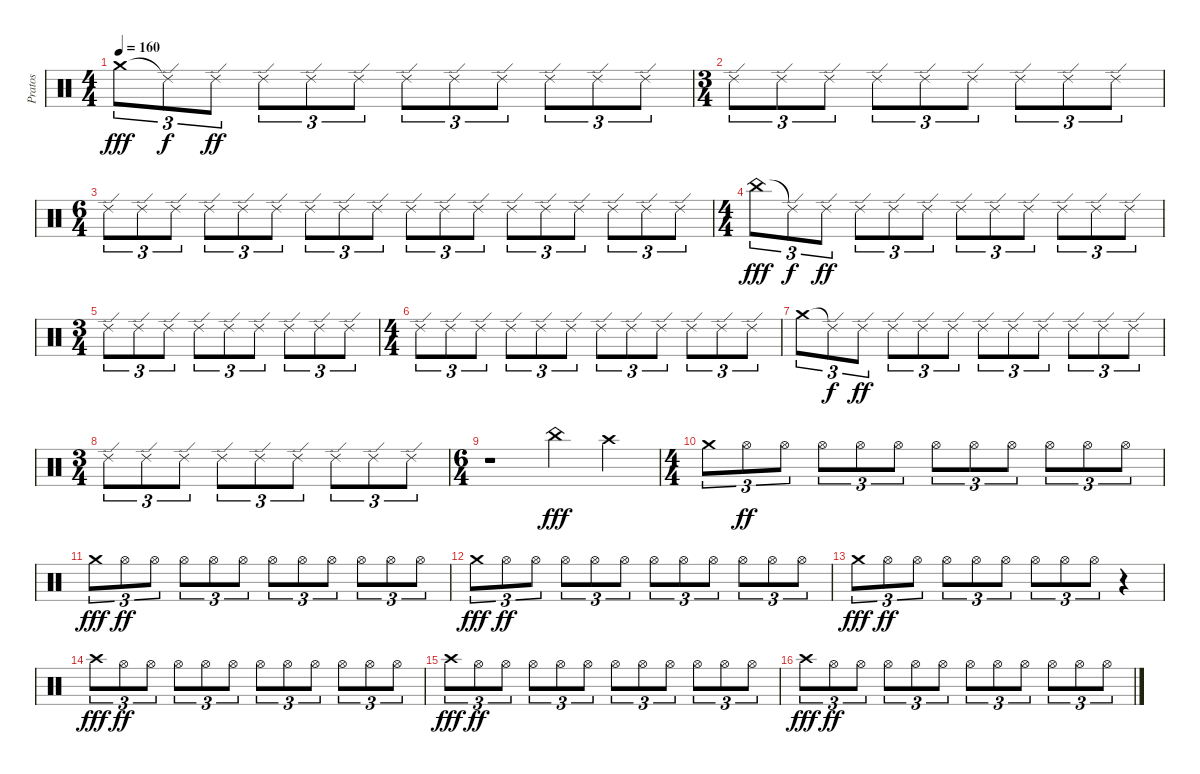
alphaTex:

\track ("Pratos" "Pratos") {instrument percussion}
\staff {score}
\articulation defaults
\ts (4 4)
\tempo 160
\clef neutral
\ks c "Crash medium (hit)".8{tu (3 2) dy fff} "Ride (edge) 2"{t}.8{tu (3 2) dy f} "Ride (edge) 2".8{tu (3 2) dy ff} "Ride (edge) 2".8{tu (3 2)} "Ride (edge) 2".8{tu (3 2)} "Ride (edge) 2".8{tu (3 2)} "Ride (edge) 2".8{tu (3 2)} "Ride (edge) 2".8{tu (3 2)} "Ride (edge) 2".8{tu (3 2)} "Ride (edge) 2".8{tu (3 2)} "Ride (edge) 2".8{tu (3 2)} "Ride (edge) 2".8{tu (3 2)}
|
\ts (3 4)
"Ride (edge) 2".8{tu (3 2)} "Ride (edge) 2".8{tu (3 2)} "Ride (edge) 2".8{tu (3 2)} "Ride (edge) 2".8{tu (3 2)} "Ride (edge) 2".8{tu (3 2)} "Ride (edge) 2".8{tu (3 2)} "Ride (edge) 2".8{tu (3 2)} "Ride (edge) 2".8{tu (3 2)} "Ride (edge) 2".8{tu (3 2)} |
\ts (6 4)
"Ride (edge) 2".8{tu (3 2)} "Ride (edge) 2".8{tu (3 2)} "Ride (edge) 2".8{tu (3 2)} "Ride (edge) 2".8{tu (3 2)} "Ride (edge) 2".8{tu (3 2)} "Ride (edge) 2".8{tu (3 2)} "Ride (edge) 2".8{tu (3 2)} "Ride (edge) 2".8{tu (3 2)} "Ride (edge) 2".8{tu (3 2)} "Ride (edge) 2".8{tu (3 2)} "Ride (edge) 2".8{tu (3 2)} "Ride (edge) 2".8{tu (3 2)} "Ride (edge) 2".8{tu (3 2)} "Ride (edge) 2".8{tu (3 2)} "Ride (edge) 2".8{tu (3 2)} "Ride (edge) 2".8{tu (3 2)} "Ride (edge) 2".8{tu (3 2)} "Ride (edge) 2".8{tu (3 2)} |
\ts (4 4)
"China (hit)".8{tu (3 2) dy fff} "Ride (edge) 2"{t}.8{tu (3 2) dy f} "Ride (edge) 2".8{tu (3 2) dy ff} "Ride (edge) 2".8{tu (3 2)} "Ride (edge) 2".8{tu (3 2)} "Ride (edge) 2".8{tu (3 2)} "Ride (edge) 2".8{tu (3 2)} "Ride (edge) 2".8{tu (3 2)} "Ride (edge) 2".8{tu (3 2)} "Ride (edge) 2".8{tu (3 2)} "Ride (edge) 2".8{tu (3 2)} "Ride (edge) 2".8{tu (3 2)} |
\ts (3 4)
"Ride (edge) 2".8{tu (3 2)} "Ride (edge) 2".8{tu (3 2)} "Ride (edge) 2".8{tu (3 2)} "Ride (edge) 2".8{tu (3 2)} "Ride (edge) 2".8{tu (3 2)} "Ride (edge) 2".8{tu (3 2)} "Ride (edge) 2".8{tu (3 2)} "Ride (edge) 2".8{tu (3 2)} "Ride (edge) 2".8{tu (3 2)} |
\ts (4 4)
"Ride (edge) 2".8{tu (3 2)} "Ride (edge) 2".8{tu (3 2)} "Ride (edge) 2".8{tu (3 2)} "Ride (edge) 2".8{tu (3 2)} "Ride (edge) 2".8{tu (3 2)} "Ride (edge) 2".8{tu (3 2)} "Ride (edge) 2".8{tu (3 2)} "Ride (edge) 2".8{tu (3 2)} "Ride (edge) 2".8{tu (3 2)} "Ride (edge) 2".8{tu (3 2)} "Ride (edge) 2".8{tu (3 2)} "Ride (edge) 2".8{tu (3 2)} |
"Crash medium (hit)".8{tu (3 2)} "Ride (edge) 2"{t}.8{tu (3 2) dy f} "Ride (edge) 2".8{tu (3 2) dy ff} "Ride (edge) 2".8{tu (3 2)} "Ride (edge) 2".8{tu (3 2)} "Ride (edge) 2".8{tu (3 2)} "Ride (edge) 2".8{tu (3 2)} "Ride (edge) 2".8{tu (3 2)} "Ride (edge) 2".8{tu (3 2)} "Ride (edge) 2".8{tu (3 2)} "Ride (edge) 2".8{tu (3 2)} "Ride (edge) 2".8{tu (3 2)} |
\ts (3 4)
"Ride (edge) 2".8{tu (3 2)} "Ride (edge) 2".8{tu (3 2)} "Ride (edge) 2".8{tu (3 2)} "Ride (edge) 2".8{tu (3 2)} "Ride (edge) 2".8{tu (3 2)} "Ride (edge) 2".8{tu (3 2)} "Ride (edge) 2".8{tu (3 2)} "Ride (edge) 2".8{tu (3 2)} "Ride (edge) 2".8{tu (3 2)} |
\ts (6 4)
r.1 "China (hit)".4{dy fff} "Crash high (hit)".4 |
\ts (4 4)
"Crash medium (hit)".8{tu (3 2)} "Hi-Hat (open)".8{tu (3 2) dy ff} "Hi-Hat (open)".8{tu (3 2)} "Hi-Hat (open)".8{tu (3 2)} "Hi-Hat (open)".8{tu (3 2)} "Hi-Hat (open)".8{tu (3 2)} "Hi-Hat (open)".8{tu (3 2)} "Hi-Hat (open)".8{tu (3 2)} "Hi-Hat (open)".8{tu (3 2)} "Hi-Hat (open)".8{tu (3 2)} "Hi-Hat (open)".8{tu (3 2)} "Hi-Hat (open)".8{tu (3 2)} |
"Crash medium (hit)".8{tu (3 2) dy fff} "Hi-Hat (open)".8{tu (3 2) dy ff} "Hi-Hat (open)".8{tu (3 2)} "Hi-Hat (open)".8{tu (3 2)} "Hi-Hat (open)".8{tu (3 2)} "Hi-Hat (open)".8{tu (3 2)} "Hi-Hat (open)".8{tu (3 2)} "Hi-Hat (open)".8{tu (3 2)} "Hi-Hat (open)".8{tu (3 2)} "Hi-Hat (open)".8{tu (3 2)} "Hi-Hat (open)".8{tu (3 2)} "Hi-Hat (open)".8{tu (3 2)} |
"Crash medium (hit)".8{tu (3 2) dy fff} "Hi-Hat (open)".8{tu (3 2) dy ff} "Hi-Hat (open)".8{tu (3 2)} "Hi-Hat (open)".8{tu (3 2)} "Hi-Hat (open)".8{tu (3 2)} "Hi-Hat (open)".8{tu (3 2)} "Hi-Hat (open)".8{tu (3 2)} "Hi-Hat (open)".8{tu (3 2)} "Hi-Hat (open)".8{tu (3 2)} "Hi-Hat (open)".8{tu (3 2)} "Hi-Hat (open)".8{tu (3 2)} "Hi-Hat (open)".8{tu (3 2)} |
"Crash medium (hit)".8{tu (3 2) dy fff} "Hi-Hat (open)".8{tu (3 2) dy ff} "Hi-Hat (open)".8{tu (3 2)} "Hi-Hat (open)".8{tu (3 2)} "Hi-Hat (open)".8{tu (3 2)} "Hi-Hat (open)".8{tu (3 2)} "Hi-Hat (open)".8{tu (3 2)} "Hi-Hat (open)".8{tu (3 2)} "Hi-Hat (open)".8{tu (3 2)} r.4 |
"Crash high (hit)".8{tu (3 2) dy fff} "Hi-Hat (open)".8{tu (3 2) dy ff} "Hi-Hat (open)".8{tu (3 2)} "Hi-Hat (open)".8{tu (3 2)} "Hi-Hat (open)".8{tu (3 2)} "Hi-Hat (open)".8{tu (3 2)} "Hi-Hat (open)".8{tu (3 2)} "Hi-Hat (open)".8{tu (3 2)} "Hi-Hat (open)".8{tu (3 2)} "Hi-Hat (open)".8{tu (3 2)} "Hi-Hat (open)".8{tu (3 2)} "Hi-Hat (open)".8{tu (3 2)} |
"Crash high (hit)".8{tu (3 2) dy fff} "Hi-Hat (open)".8{tu (3 2) dy ff} "Hi-Hat (open)".8{tu (3 2)} "Hi-Hat (open)".8{tu (3 2)} "Hi-Hat (open)".8{tu (3 2)} "Hi-Hat (open)".8{tu (3 2)} "Hi-Hat (open)".8{tu (3 2)} "Hi-Hat (open)".8{tu (3 2)} "Hi-Hat (open)".8{tu (3 2)} "Hi-Hat (open)".8{tu (3 2)} "Hi-Hat (open)".8{tu (3 2)} "Hi-Hat (open)".8{tu (3 2)} |
"Crash high (hit)".8{tu (3 2) dy fff} "Hi-Hat (open)".8{tu (3 2) dy ff} "Hi-Hat (open)".8{tu (3 2)} "Hi-Hat (open)".8{tu (3 2)} "Hi-Hat (open)".8{tu (3 2)} "Hi-Hat (open)".8{tu (3 2)} "Hi-Hat (open)".8{tu (3 2)} "Hi-Hat (open)".8{tu (3 2)} "Hi-Hat (open)".8{tu (3 2)} "Hi-Hat (open)".8{tu (3 2)} "Hi-Hat (open)".8{tu (3 2)} "Hi-Hat (open)".8{tu (3 2)}
